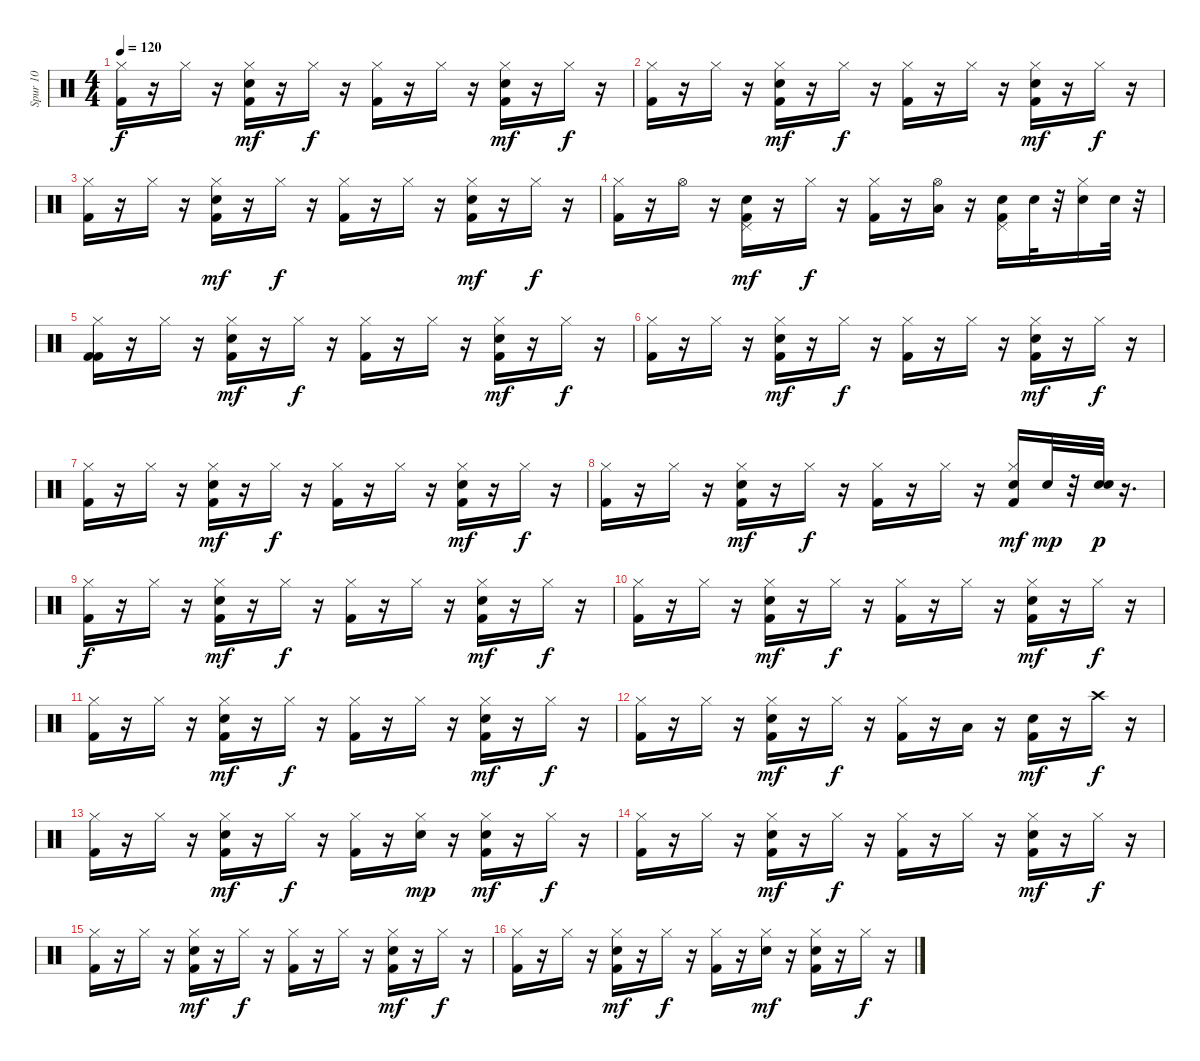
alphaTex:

\track ("Spur 10" "Spur 10") {instrument percussion}
\staff {score}
\articulation defaults
\ts (4 4)
\tempo 120
\clef neutral
\ks c
("Kick (hit) 2" "Hi-Hat (closed)").16{dy f} r.16 "Hi-Hat (closed)".16 r.16 ("Kick (hit) 2" "Hi-Hat (closed)" "Snare (hit) 2").16{dy mf} r.16 "Hi-Hat (closed)".16{dy f} r.16 ("Hi-Hat (closed)" "Kick (hit) 2").16 r.16 "Hi-Hat (closed)".16 r.16 ("Kick (hit) 2" "Hi-Hat (closed)" "Snare (hit) 2").16{dy mf} r.16 "Hi-Hat (closed)".16{dy f} r.16 |
("Hi-Hat (closed)" "Kick (hit) 2").16 r.16 "Hi-Hat (closed)".16 r.16 ("Kick (hit) 2" "Hi-Hat (closed)" "Snare (hit) 2").16{dy mf} r.16 "Hi-Hat (closed)".16{dy f} r.16 ("Hi-Hat (closed)" "Kick (hit) 2").16 r.16 "Hi-Hat (closed)".16 r.16 ("Kick (hit) 2" "Hi-Hat (closed)" "Snare (hit) 2").16{dy mf} r.16 "Hi-Hat (closed)".16{dy f} r.16 |
("Kick (hit) 2" "Hi-Hat (closed)").16 r.16 "Hi-Hat (closed)".16 r.16 ("Kick (hit) 2" "Hi-Hat (closed)" "Snare (hit) 2").16{dy mf} r.16 "Hi-Hat (closed)".16{dy f} r.16 ("Kick (hit) 2" "Hi-Hat (closed)").16 r.16 "Hi-Hat (closed)".16 r.16 ("Kick (hit) 2" "Hi-Hat (closed)" "Snare (hit) 2").16{dy mf} r.16 "Hi-Hat (closed)".16{dy f} r.16 |
("Hi-Hat (closed)" "Kick (hit) 2").16 r.16 "Hi-Hat (open)".16 r.16 ("Pedal Hi-Hat (hit)" "Kick (hit) 2" "Snare (hit) 2").16{dy mf} r.16 "Hi-Hat (closed)".16{dy f} r.16 ("Kick (hit) 2" "Hi-Hat (closed)").16 r.16 ("Hi-Hat (open)" "Low Tom (hit)").16 r.16 ("Snare (hit) 2" "Pedal Hi-Hat (hit)" "Kick (hit) 2").16 "Snare (hit) 2".32 r.32 ("Snare (hit) 2" "Hi-Hat (closed)").16 "Snare (hit) 2".32 r.32 |
("Kick (hit) 2" "Kick (hit) 2" "Hi-Hat (closed)").16 r.16 "Hi-Hat (closed)".16 r.16 ("Hi-Hat (closed)" "Kick (hit) 2" "Snare (hit) 2").16{dy mf} r.16 "Hi-Hat (closed)".16{dy f} r.16 ("Hi-Hat (closed)" "Kick (hit) 2").16 r.16 "Hi-Hat (closed)".16 r.16 ("Hi-Hat (closed)" "Kick (hit) 2" "Snare (hit) 2").16{dy mf} r.16 "Hi-Hat (closed)".16{dy f} r.16 |
("Hi-Hat (closed)" "Kick (hit) 2").16 r.16 "Hi-Hat (closed)".16 r.16 ("Hi-Hat (closed)" "Kick (hit) 2" "Snare (hit) 2").16{dy mf} r.16 "Hi-Hat (closed)".16{dy f} r.16 ("Hi-Hat (closed)" "Kick (hit) 2").16 r.16 "Hi-Hat (closed)".16 r.16 ("Hi-Hat (closed)" "Kick (hit) 2" "Snare (hit) 2").16{dy mf} r.16 "Hi-Hat (closed)".16{dy f} r.16 |
("Kick (hit) 2" "Hi-Hat (closed)").16 r.16 "Hi-Hat (closed)".16 r.16 ("Hi-Hat (closed)" "Kick (hit) 2" "Snare (hit) 2").16{dy mf} r.16 "Hi-Hat (closed)".16{dy f} r.16 ("Kick (hit) 2" "Hi-Hat (closed)").16 r.16 "Hi-Hat (closed)".16 r.16 ("Hi-Hat (closed)" "Kick (hit) 2" "Snare (hit) 2").16{dy mf} r.16 "Hi-Hat (closed)".16{dy f} r.16 |
("Hi-Hat (closed)" "Kick (hit) 2").16 r.16 "Hi-Hat (closed)".16 r.16 ("Hi-Hat (closed)" "Kick (hit) 2" "Snare (hit) 2").16{dy mf} r.16 "Hi-Hat (closed)".16{dy f} r.16 ("Kick (hit) 2" "Hi-Hat (closed)").16 r.16 "Hi-Hat (closed)".16 r.16 ("Kick (hit) 2" "Snare (hit) 2" "Hi-Hat (closed)").16{dy mf} "Snare (hit) 2".32{dy mp} r.32 ("Snare (hit) 2" "Snare (hit) 2").32{dy p} r.16{d} |
("Kick (hit) 2" "Hi-Hat (closed)").16{dy f} r.16 "Hi-Hat (closed)".16 r.16 ("Hi-Hat (closed)" "Kick (hit) 2" "Snare (hit) 2").16{dy mf} r.16 "Hi-Hat (closed)".16{dy f} r.16 ("Hi-Hat (closed)" "Kick (hit) 2").16 r.16 "Hi-Hat (closed)".16 r.16 ("Hi-Hat (closed)" "Kick (hit) 2" "Snare (hit) 2").16{dy mf} r.16 "Hi-Hat (closed)".16{dy f} r.16 |
("Hi-Hat (closed)" "Kick (hit) 2").16 r.16 "Hi-Hat (closed)".16 r.16 ("Hi-Hat (closed)" "Kick (hit) 2" "Snare (hit) 2").16{dy mf} r.16 "Hi-Hat (closed)".16{dy f} r.16 ("Hi-Hat (closed)" "Kick (hit) 2").16 r.16 "Hi-Hat (closed)".16 r.16 ("Hi-Hat (closed)" "Kick (hit) 2" "Snare (hit) 2").16{dy mf} r.16 "Hi-Hat (closed)".16{dy f} r.16 |
("Kick (hit) 2" "Hi-Hat (closed)").16 r.16 "Hi-Hat (closed)".16 r.16 ("Hi-Hat (closed)" "Kick (hit) 2" "Snare (hit) 2").16{dy mf} r.16 "Hi-Hat (closed)".16{dy f} r.16 ("Kick (hit) 2" "Hi-Hat (closed)").16 r.16 "Hi-Hat (closed)".16 r.16 ("Hi-Hat (closed)" "Kick (hit) 2" "Snare (hit) 2").16{dy mf} r.16 "Hi-Hat (closed)".16{dy f} r.16 |
("Hi-Hat (closed)" "Kick (hit) 2").16 r.16 "Hi-Hat (closed)".16 r.16 ("Hi-Hat (closed)" "Kick (hit) 2" "Snare (hit) 2").16{dy mf} r.16 "Hi-Hat (closed)".16{dy f} r.16 ("Kick (hit) 2" "Hi-Hat (closed)").16 r.16 "Low Tom (hit)".16 r.16 ("Kick (hit) 2" "Snare (hit) 2").16{dy mf} r.16 "Crash high (hit)".16{dy f} r.16 |
("Kick (hit) 2" "Hi-Hat (closed)").16 r.16 "Hi-Hat (closed)".16 r.16 ("Hi-Hat (closed)" "Kick (hit) 2" "Snare (hit) 2").16{dy mf} r.16 "Hi-Hat (closed)".16{dy f} r.16 ("Hi-Hat (closed)" "Kick (hit) 2").16 r.16 ("Hi-Hat (closed)" "Snare (hit) 2").16{dy mp} r.16 ("Hi-Hat (closed)" "Kick (hit) 2" "Snare (hit) 2").16{dy mf} r.16 "Hi-Hat (closed)".16{dy f} r.16 |
("Hi-Hat (closed)" "Kick (hit) 2").16 r.16 "Hi-Hat (closed)".16 r.16 ("Hi-Hat (closed)" "Kick (hit) 2" "Snare (hit) 2").16{dy mf} r.16 "Hi-Hat (closed)".16{dy f} r.16 ("Hi-Hat (closed)" "Kick (hit) 2").16 r.16 "Hi-Hat (closed)".16 r.16 ("Hi-Hat (closed)" "Kick (hit) 2" "Snare (hit) 2").16{dy mf} r.16 "Hi-Hat (closed)".16{dy f} r.16 |
("Kick (hit) 2" "Hi-Hat (closed)").16 r.16 "Hi-Hat (closed)".16 r.16 ("Hi-Hat (closed)" "Kick (hit) 2" "Snare (hit) 2").16{dy mf} r.16 "Hi-Hat (closed)".16{dy f} r.16 ("Kick (hit) 2" "Hi-Hat (closed)").16 r.16 "Hi-Hat (closed)".16 r.16 ("Hi-Hat (closed)" "Kick (hit) 2" "Snare (hit) 2").16{dy mf} r.16 "Hi-Hat (closed)".16{dy f} r.16 |
("Hi-Hat (closed)" "Kick (hit) 2").16 r.16 "Hi-Hat (closed)".16 r.16 ("Hi-Hat (closed)" "Kick (hit) 2" "Snare (hit) 2").16{dy mf} r.16 "Hi-Hat (closed)".16{dy f} r.16 ("Kick (hit) 2" "Hi-Hat (closed)").16 r.16 ("Hi-Hat (closed)" "Snare (hit) 2").16{dy mf} r.16 ("Hi-Hat (closed)" "Kick (hit) 2" "Snare (hit) 2").16 r.16 "Hi-Hat (closed)".16{dy f} r.16
